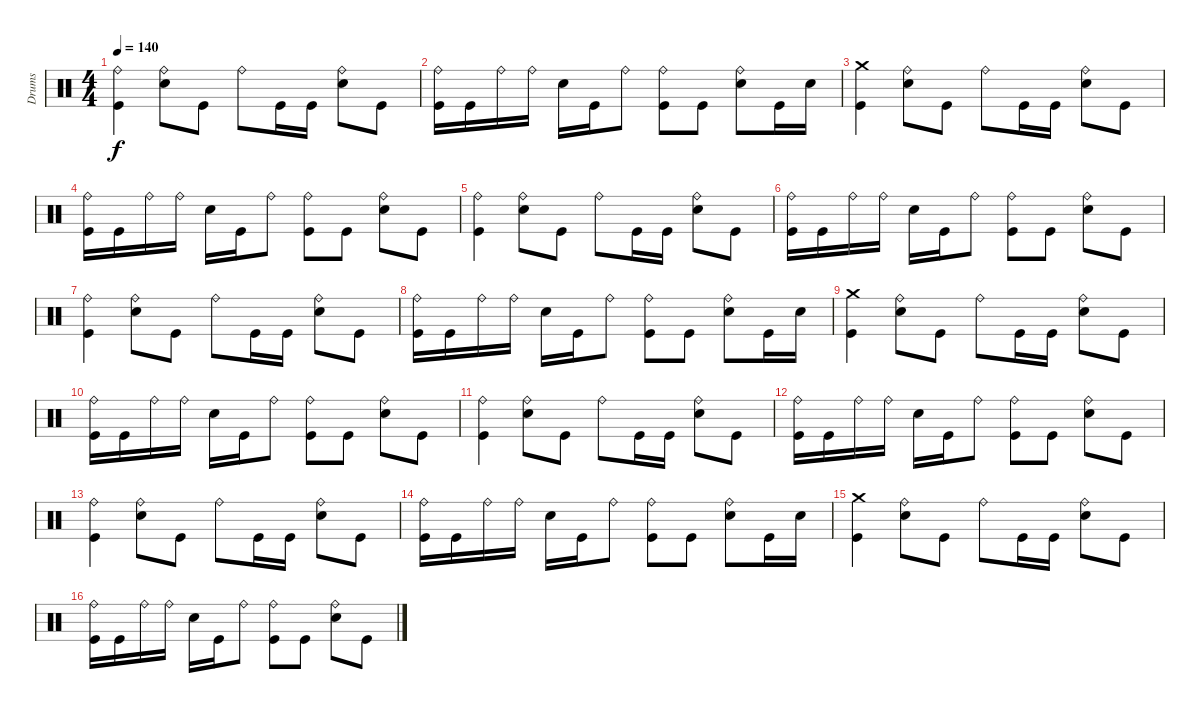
\track ("Drums" "Drums") {instrument percussion}
\staff {score}
\articulation defaults
\ts (4 4)
\tempo 140
\clef neutral
\ks c
("Kick (hit)" "Ride (bell)").4{dy f} ("Electric Snare (hit)" "Ride (bell)").8 "Kick (hit)".8 "Ride (bell)".8 "Kick (hit)".16 "Kick (hit)".16 ("Electric Snare (hit)" "Ride (bell)").8 "Kick (hit)".8 |
("Kick (hit)" "Ride (bell)").16 "Kick (hit)".16 "Ride (bell)".16 "Ride (bell)".16 "Electric Snare (hit)".16 "Kick (hit)".16 "Ride (bell)".8 ("Kick (hit)" "Ride (bell)").8 "Kick (hit)".8 ("Electric Snare (hit)" "Ride (bell)").8 "Kick (hit)".16 "Electric Snare (hit)".16 |
("Kick (hit)" "Crash medium (hit)").4 ("Electric Snare (hit)" "Ride (bell)").8 "Kick (hit)".8 "Ride (bell)".8 "Kick (hit)".16 "Kick (hit)".16 ("Electric Snare (hit)" "Ride (bell)").8 "Kick (hit)".8 |
("Kick (hit)" "Ride (bell)").16 "Kick (hit)".16 "Ride (bell)".16 "Ride (bell)".16 "Electric Snare (hit)".16 "Kick (hit)".16 "Ride (bell)".8 ("Kick (hit)" "Ride (bell)").8 "Kick (hit)".8 ("Electric Snare (hit)" "Ride (bell)").8 "Kick (hit)".8 |
("Kick (hit)" "Ride (bell)").4 ("Electric Snare (hit)" "Ride (bell)").8 "Kick (hit)".8 "Ride (bell)".8 "Kick (hit)".16 "Kick (hit)".16 ("Electric Snare (hit)" "Ride (bell)").8 "Kick (hit)".8 |
("Kick (hit)" "Ride (bell)").16 "Kick (hit)".16 "Ride (bell)".16 "Ride (bell)".16 "Electric Snare (hit)".16 "Kick (hit)".16 "Ride (bell)".8 ("Kick (hit)" "Ride (bell)").8 "Kick (hit)".8 ("Electric Snare (hit)" "Ride (bell)").8 "Kick (hit)".8 |
("Kick (hit)" "Ride (bell)").4 ("Electric Snare (hit)" "Ride (bell)").8 "Kick (hit)".8 "Ride (bell)".8 "Kick (hit)".16 "Kick (hit)".16 ("Electric Snare (hit)" "Ride (bell)").8 "Kick (hit)".8 |
("Kick (hit)" "Ride (bell)").16 "Kick (hit)".16 "Ride (bell)".16 "Ride (bell)".16 "Electric Snare (hit)".16 "Kick (hit)".16 "Ride (bell)".8 ("Kick (hit)" "Ride (bell)").8 "Kick (hit)".8 ("Electric Snare (hit)" "Ride (bell)").8 "Kick (hit)".16 "Electric Snare (hit)".16 |
("Kick (hit)" "Crash medium (hit)").4 ("Electric Snare (hit)" "Ride (bell)").8 "Kick (hit)".8 "Ride (bell)".8 "Kick (hit)".16 "Kick (hit)".16 ("Electric Snare (hit)" "Ride (bell)").8 "Kick (hit)".8 |
("Kick (hit)" "Ride (bell)").16 "Kick (hit)".16 "Ride (bell)".16 "Ride (bell)".16 "Electric Snare (hit)".16 "Kick (hit)".16 "Ride (bell)".8 ("Kick (hit)" "Ride (bell)").8 "Kick (hit)".8 ("Electric Snare (hit)" "Ride (bell)").8 "Kick (hit)".8 |
("Kick (hit)" "Ride (bell)").4 ("Electric Snare (hit)" "Ride (bell)").8 "Kick (hit)".8 "Ride (bell)".8 "Kick (hit)".16 "Kick (hit)".16 ("Electric Snare (hit)" "Ride (bell)").8 "Kick (hit)".8 |
("Kick (hit)" "Ride (bell)").16 "Kick (hit)".16 "Ride (bell)".16 "Ride (bell)".16 "Electric Snare (hit)".16 "Kick (hit)".16 "Ride (bell)".8 ("Kick (hit)" "Ride (bell)").8 "Kick (hit)".8 ("Electric Snare (hit)" "Ride (bell)").8 "Kick (hit)".8 |
("Kick (hit)" "Ride (bell)").4 ("Electric Snare (hit)" "Ride (bell)").8 "Kick (hit)".8 "Ride (bell)".8 "Kick (hit)".16 "Kick (hit)".16 ("Electric Snare (hit)" "Ride (bell)").8 "Kick (hit)".8 |
("Kick (hit)" "Ride (bell)").16 "Kick (hit)".16 "Ride (bell)".16 "Ride (bell)".16 "Electric Snare (hit)".16 "Kick (hit)".16 "Ride (bell)".8 ("Kick (hit)" "Ride (bell)").8 "Kick (hit)".8 ("Electric Snare (hit)" "Ride (bell)").8 "Kick (hit)".16 "Electric Snare (hit)".16 |
("Kick (hit)" "Crash medium (hit)").4 ("Electric Snare (hit)" "Ride (bell)").8 "Kick (hit)".8 "Ride (bell)".8 "Kick (hit)".16 "Kick (hit)".16 ("Electric Snare (hit)" "Ride (bell)").8 "Kick (hit)".8 |
("Kick (hit)" "Ride (bell)").16 "Kick (hit)".16 "Ride (bell)".16 "Ride (bell)".16 "Electric Snare (hit)".16 "Kick (hit)".16 "Ride (bell)".8 ("Kick (hit)" "Ride (bell)").8 "Kick (hit)".8 ("Electric Snare (hit)" "Ride (bell)").8 "Kick (hit)".8
